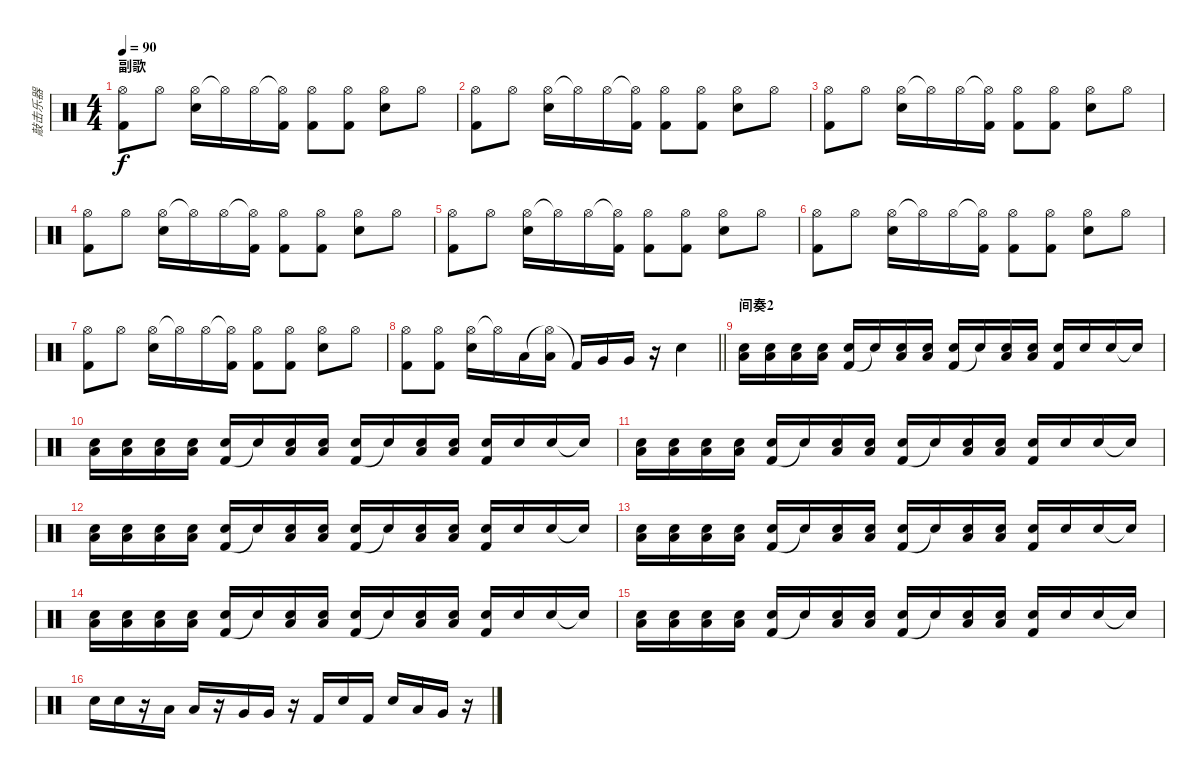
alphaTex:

\track ("敲击乐器" "敲击乐器") {instrument percussion}
\staff {score}
\articulation defaults
\ts (4 4)
\section ("" "副歌")
\tempo 90
\clef neutral
\ks c
("Hi-Hat (open)" "Kick (hit) 2").8{dy f} "Hi-Hat (open)".8 ("Hi-Hat (open)" "Electric Snare (hit)").16 "Hi-Hat (open)"{t}.16 "Hi-Hat (open)".16 ("Hi-Hat (open)"{t} "Kick (hit) 2").16 ("Hi-Hat (open)" "Kick (hit) 2").8 ("Hi-Hat (open)" "Kick (hit) 2").8 ("Hi-Hat (open)" "Electric Snare (hit)").8 "Hi-Hat (open)".8 |
("Hi-Hat (open)" "Kick (hit) 2").8 "Hi-Hat (open)".8 ("Hi-Hat (open)" "Electric Snare (hit)").16 "Hi-Hat (open)"{t}.16 "Hi-Hat (open)".16 ("Hi-Hat (open)"{t} "Kick (hit) 2").16 ("Hi-Hat (open)" "Kick (hit) 2").8 ("Hi-Hat (open)" "Kick (hit) 2").8 ("Hi-Hat (open)" "Electric Snare (hit)").8 "Hi-Hat (open)".8 |
("Hi-Hat (open)" "Kick (hit) 2").8 "Hi-Hat (open)".8 ("Hi-Hat (open)" "Electric Snare (hit)").16 "Hi-Hat (open)"{t}.16 "Hi-Hat (open)".16 ("Hi-Hat (open)"{t} "Kick (hit) 2").16 ("Hi-Hat (open)" "Kick (hit) 2").8 ("Hi-Hat (open)" "Kick (hit) 2").8 ("Hi-Hat (open)" "Electric Snare (hit)").8 "Hi-Hat (open)".8 |
("Hi-Hat (open)" "Kick (hit) 2").8 "Hi-Hat (open)".8 ("Hi-Hat (open)" "Electric Snare (hit)").16 "Hi-Hat (open)"{t}.16 "Hi-Hat (open)".16 ("Hi-Hat (open)"{t} "Kick (hit) 2").16 ("Hi-Hat (open)" "Kick (hit) 2").8 ("Hi-Hat (open)" "Kick (hit) 2").8 ("Hi-Hat (open)" "Electric Snare (hit)").8 "Hi-Hat (open)".8 |
("Hi-Hat (open)" "Kick (hit) 2").8 "Hi-Hat (open)".8 ("Hi-Hat (open)" "Electric Snare (hit)").16 "Hi-Hat (open)"{t}.16 "Hi-Hat (open)".16 ("Hi-Hat (open)"{t} "Kick (hit) 2").16 ("Hi-Hat (open)" "Kick (hit) 2").8 ("Hi-Hat (open)" "Kick (hit) 2").8 ("Hi-Hat (open)" "Electric Snare (hit)").8 "Hi-Hat (open)".8 |
("Hi-Hat (open)" "Kick (hit) 2").8 "Hi-Hat (open)".8 ("Hi-Hat (open)" "Electric Snare (hit)").16 "Hi-Hat (open)"{t}.16 "Hi-Hat (open)".16 ("Hi-Hat (open)"{t} "Kick (hit) 2").16 ("Hi-Hat (open)" "Kick (hit) 2").8 ("Hi-Hat (open)" "Kick (hit) 2").8 ("Hi-Hat (open)" "Electric Snare (hit)").8 "Hi-Hat (open)".8 |
("Hi-Hat (open)" "Kick (hit) 2").8 "Hi-Hat (open)".8 ("Hi-Hat (open)" "Electric Snare (hit)").16 "Hi-Hat (open)"{t}.16 "Hi-Hat (open)".16 ("Hi-Hat (open)"{t} "Kick (hit) 2").16 ("Hi-Hat (open)" "Kick (hit) 2").8 ("Hi-Hat (open)" "Kick (hit) 2").8 ("Hi-Hat (open)" "Electric Snare (hit)").8 "Hi-Hat (open)".8 |
\barLineRight lightlight
("Hi-Hat (open)" "Kick (hit) 2").8 ("Hi-Hat (open)" "Kick (hit) 2").8 ("Hi-Hat (open)" "Electric Snare (hit)").16 "Hi-Hat (open)"{t}.16 "Low Tom (hit)".16 ("Hi-Hat (open)"{t} "Low Tom (hit)").16 "Kick (hit) 2"{t}.16 "Very Low Tom (hit)".16 "Very Low Tom (hit)".16 r.16 "Electric Snare (hit)".4 |
\section ("" "间奏2")
("Low Floor Tom (hit)" "Electric Snare (hit)").16 ("Low Floor Tom (hit)" "Electric Snare (hit)").16 ("Low Floor Tom (hit)" "Electric Snare (hit)").16 ("Low Floor Tom (hit)" "Electric Snare (hit)").16 ("Kick (hit) 2" "Electric Snare (hit)").16 "Snare (hit)"{t}.16 ("Low Floor Tom (hit)" "Electric Snare (hit)").16 ("Low Floor Tom (hit)" "Electric Snare (hit)").16 ("Kick (hit) 2" "Electric Snare (hit)").16 "Snare (hit)"{t}.16 ("Low Floor Tom (hit)" "Electric Snare (hit)").16 ("Low Floor Tom (hit)" "Electric Snare (hit)").16 ("Kick (hit) 2" "Electric Snare (hit)").16 "Electric Snare (hit)".16 "Electric Snare (hit)".16 "Snare (hit)"{t}.16 |
("Low Floor Tom (hit)" "Electric Snare (hit)").16 ("Low Floor Tom (hit)" "Electric Snare (hit)").16 ("Low Floor Tom (hit)" "Electric Snare (hit)").16 ("Low Floor Tom (hit)" "Electric Snare (hit)").16 ("Kick (hit) 2" "Electric Snare (hit)").16 "Snare (hit)"{t}.16 ("Low Floor Tom (hit)" "Electric Snare (hit)").16 ("Low Floor Tom (hit)" "Electric Snare (hit)").16 ("Kick (hit) 2" "Electric Snare (hit)").16 "Snare (hit)"{t}.16 ("Low Floor Tom (hit)" "Electric Snare (hit)").16 ("Low Floor Tom (hit)" "Electric Snare (hit)").16 ("Kick (hit) 2" "Electric Snare (hit)").16 "Electric Snare (hit)".16 "Electric Snare (hit)".16 "Snare (hit)"{t}.16 |
("Low Floor Tom (hit)" "Electric Snare (hit)").16 ("Low Floor Tom (hit)" "Electric Snare (hit)").16 ("Low Floor Tom (hit)" "Electric Snare (hit)").16 ("Low Floor Tom (hit)" "Electric Snare (hit)").16 ("Kick (hit) 2" "Electric Snare (hit)").16 "Snare (hit)"{t}.16 ("Low Floor Tom (hit)" "Electric Snare (hit)").16 ("Low Floor Tom (hit)" "Electric Snare (hit)").16 ("Kick (hit) 2" "Electric Snare (hit)").16 "Snare (hit)"{t}.16 ("Low Floor Tom (hit)" "Electric Snare (hit)").16 ("Low Floor Tom (hit)" "Electric Snare (hit)").16 ("Kick (hit) 2" "Electric Snare (hit)").16 "Electric Snare (hit)".16 "Electric Snare (hit)".16 "Snare (hit)"{t}.16 |
("Low Floor Tom (hit)" "Electric Snare (hit)").16 ("Low Floor Tom (hit)" "Electric Snare (hit)").16 ("Low Floor Tom (hit)" "Electric Snare (hit)").16 ("Low Floor Tom (hit)" "Electric Snare (hit)").16 ("Kick (hit) 2" "Electric Snare (hit)").16 "Snare (hit)"{t}.16 ("Low Floor Tom (hit)" "Electric Snare (hit)").16 ("Low Floor Tom (hit)" "Electric Snare (hit)").16 ("Kick (hit) 2" "Electric Snare (hit)").16 "Snare (hit)"{t}.16 ("Low Floor Tom (hit)" "Electric Snare (hit)").16 ("Low Floor Tom (hit)" "Electric Snare (hit)").16 ("Kick (hit) 2" "Electric Snare (hit)").16 "Electric Snare (hit)".16 "Electric Snare (hit)".16 "Snare (hit)"{t}.16 |
("Low Floor Tom (hit)" "Electric Snare (hit)").16 ("Low Floor Tom (hit)" "Electric Snare (hit)").16 ("Low Floor Tom (hit)" "Electric Snare (hit)").16 ("Low Floor Tom (hit)" "Electric Snare (hit)").16 ("Kick (hit) 2" "Electric Snare (hit)").16 "Snare (hit)"{t}.16 ("Low Floor Tom (hit)" "Electric Snare (hit)").16 ("Low Floor Tom (hit)" "Electric Snare (hit)").16 ("Kick (hit) 2" "Electric Snare (hit)").16 "Snare (hit)"{t}.16 ("Low Floor Tom (hit)" "Electric Snare (hit)").16 ("Low Floor Tom (hit)" "Electric Snare (hit)").16 ("Kick (hit) 2" "Electric Snare (hit)").16 "Electric Snare (hit)".16 "Electric Snare (hit)".16 "Snare (hit)"{t}.16 |
("Low Floor Tom (hit)" "Electric Snare (hit)").16 ("Low Floor Tom (hit)" "Electric Snare (hit)").16 ("Low Floor Tom (hit)" "Electric Snare (hit)").16 ("Low Floor Tom (hit)" "Electric Snare (hit)").16 ("Kick (hit) 2" "Electric Snare (hit)").16 "Snare (hit)"{t}.16 ("Low Floor Tom (hit)" "Electric Snare (hit)").16 ("Low Floor Tom (hit)" "Electric Snare (hit)").16 ("Kick (hit) 2" "Electric Snare (hit)").16 "Snare (hit)"{t}.16 ("Low Floor Tom (hit)" "Electric Snare (hit)").16 ("Low Floor Tom (hit)" "Electric Snare (hit)").16 ("Kick (hit) 2" "Electric Snare (hit)").16 "Electric Snare (hit)".16 "Electric Snare (hit)".16 "Snare (hit)"{t}.16 |
("Low Floor Tom (hit)" "Electric Snare (hit)").16 ("Low Floor Tom (hit)" "Electric Snare (hit)").16 ("Low Floor Tom (hit)" "Electric Snare (hit)").16 ("Low Floor Tom (hit)" "Electric Snare (hit)").16 ("Kick (hit) 2" "Electric Snare (hit)").16 "Snare (hit)"{t}.16 ("Low Floor Tom (hit)" "Electric Snare (hit)").16 ("Low Floor Tom (hit)" "Electric Snare (hit)").16 ("Kick (hit) 2" "Electric Snare (hit)").16 "Snare (hit)"{t}.16 ("Low Floor Tom (hit)" "Electric Snare (hit)").16 ("Low Floor Tom (hit)" "Electric Snare (hit)").16 ("Kick (hit) 2" "Electric Snare (hit)").16 "Electric Snare (hit)".16 "Electric Snare (hit)".16 "Snare (hit)"{t}.16 |
"Electric Snare (hit)".16 "Electric Snare (hit)".16 r.16 "Low Tom (hit)".16 "Low Tom (hit)".16 r.16 "Very Low Tom (hit)".16 "Very Low Tom (hit)".16 r.16 "Kick (hit) 2".16 "Electric Snare (hit)".16 "Kick (hit) 2".16 "Electric Snare (hit)".16 "Low Tom (hit)".16 "Very Low Tom (hit)".16 r.16
